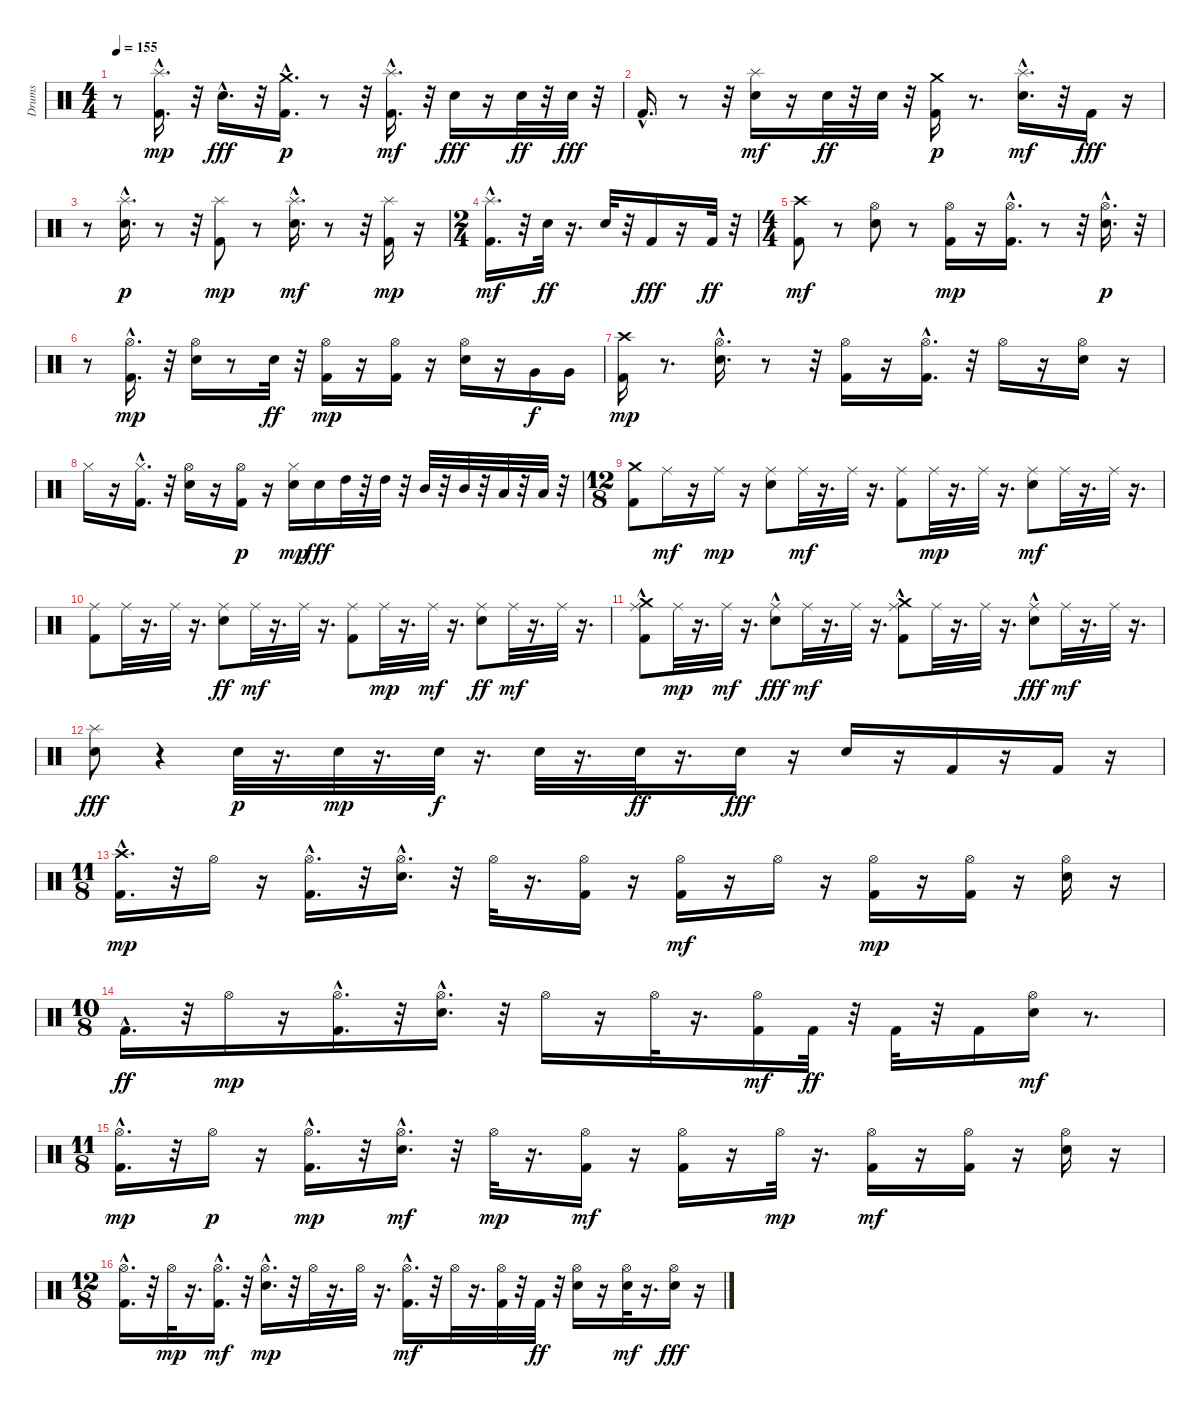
\track ("Drums" "Drums") {instrument percussion}
\staff {score}
\articulation defaults
\ts (4 4)
\tempo 155
\clef neutral
\ks c
r.8{dy mp} ("Kick (hit) 2"{hac} "Splash (hit)").16{d} r.32 "Electric Snare (hit)"{hac}.16{d dy fff} r.32 ("Kick (hit) 2"{hac} "Crash medium (hit)").16{d dy p} r.8 r.32 ("Kick (hit) 2"{hac} "Splash (hit)").16{d dy mf} r.32 "Electric Snare (hit)".16{dy fff} r.16 "Electric Snare (hit)".32{dy ff} r.32 "Electric Snare (hit)".32{dy fff} r.32 |
"Kick (hit) 2"{hac}.16{d} r.8 r.32 ("Electric Snare (hit)" "Splash (hit)").16{dy mf} r.16 "Electric Snare (hit)".32{dy ff} r.32 "Electric Snare (hit)".32 r.32 ("Kick (hit) 2" "Crash medium (hit)").16{dy p} r.8{d} ("Electric Snare (hit)"{hac} "Splash (hit)").16{d dy mf} r.32 "Kick (hit) 2".16{dy fff} r.16 |
r.8 ("Electric Snare (hit)"{hac} "Splash (hit)").16{d dy p} r.8 r.32 ("Kick (hit) 2" "Splash (hit)").8{dy mp} r.8 ("Electric Snare (hit)"{hac} "Splash (hit)"{hac}).16{d dy mf} r.8 r.32 ("Kick (hit) 2" "Splash (hit)").16{dy mp} r.16 |
\ts (2 4)
("Kick (hit) 2"{hac} "Splash (hit)").16{d dy mf} r.32 "Electric Snare (hit)".32{dy ff} r.16{d} "Electric Snare (hit)".32 r.32 "Kick (hit) 2".16{dy fff} r.16 "Kick (hit) 2".32{dy ff} r.32 |
\ts (4 4)
("Kick (hit) 2" "Crash high (hit)").8{dy mf} r.8 ("Electric Snare (hit)" "Hi-Hat (open)").8 r.8 ("Kick (hit) 2" "Hi-Hat (open)").16{dy mp} r.16 ("Kick (hit) 2"{hac} "Hi-Hat (open)").16{d} r.8 r.32 ("Electric Snare (hit)"{hac} "Hi-Hat (open)").16{d dy p} r.32 |
r.8 ("Kick (hit) 2"{hac} "Hi-Hat (open)").16{d dy mp} r.32 ("Electric Snare (hit)" "Hi-Hat (open)").16 r.8 "Electric Snare (hit)".32{dy ff} r.32 ("Kick (hit) 2" "Hi-Hat (open)").16{dy mp} r.16 ("Kick (hit) 2" "Hi-Hat (open)").16 r.16 ("Electric Snare (hit)" "Hi-Hat (open)").16 r.16 "Very Low Tom (hit)".16{dy f} "Very Low Tom (hit)".16 |
("Kick (hit) 2" "Crash high (hit)").16{dy mp} r.8{d} ("Electric Snare (hit)"{hac} "Hi-Hat (open)").16{d} r.8 r.32 ("Kick (hit) 2" "Hi-Hat (open)").16 r.16 ("Kick (hit) 2"{hac} "Hi-Hat (open)").16{d} r.32 "Hi-Hat (open)".16 r.16 ("Electric Snare (hit)" "Hi-Hat (open)").16 r.16 |
"Hi-Hat (closed)".16 r.16 ("Kick (hit) 2"{hac} "Hi-Hat (closed)").16{d} r.32 ("Electric Snare (hit)" "Hi-Hat (open)").16 r.16 ("Kick (hit) 2" "Hi-Hat (open)").16{dy p} r.16 ("Electric Snare (hit)" "Hi-Hat (closed)").16{dy mp} "Electric Snare (hit)".16{dy fff} "High Tom (hit)".32 r.32 "High Tom (hit)".32 r.32 "Mid Tom (hit)".32 r.32 "Mid Tom (hit)".32 r.32 "Low Tom (hit)".32 r.32 "Low Tom (hit)".32 r.32 |
\ts (12 8)
("Kick (hit) 2" "Crash medium (hit)").8 "Ride (middle)".16{dy mf} r.16 "Ride (middle)".16{dy mp} r.16 ("Electric Snare (hit)" "Ride (middle)").8 "Ride (middle)".32{dy mf} r.16{d} "Ride (middle)".32 r.16{d} ("Kick (hit) 2" "Ride (middle)").8 "Ride (middle)".32{dy mp} r.16{d} "Ride (middle)".32 r.16{d} ("Electric Snare (hit)" "Ride (middle)").8{dy mf} "Ride (middle)".32 r.16{d} "Ride (middle)".32 r.16{d} |
("Kick (hit) 2" "Ride (middle)").8 "Ride (middle)".32 r.16{d} "Ride (middle)".32 r.16{d} ("Electric Snare (hit)" "Ride (middle)").8{dy ff} "Ride (middle)".32{dy mf} r.16{d} "Ride (middle)".32 r.16{d} ("Kick (hit) 2" "Ride (middle)").8 "Ride (middle)".32{dy mp} r.16{d} "Ride (middle)".32{dy mf} r.16{d} ("Electric Snare (hit)" "Ride (middle)").8{dy ff} "Ride (middle)".32{dy mf} r.16{d} "Ride (middle)".32 r.16{d} |
("Kick (hit) 2" "Ride (middle)" "Crash medium (hit)"{hac}).8 "Ride (middle)".32{dy mp} r.16{d} "Ride (middle)".32{dy mf} r.16{d} ("Electric Snare (hit)"{hac} "Ride (middle)").8{dy fff} "Ride (middle)".32{dy mf} r.16{d} "Ride (middle)".32 r.16{d} ("Kick (hit) 2" "Ride (middle)" "Crash medium (hit)"{hac}).8 "Ride (middle)".32 r.16{d} "Ride (middle)".32 r.16{d} ("Electric Snare (hit)"{hac} "Ride (middle)").8{dy fff} "Ride (middle)".32{dy mf} r.16{d} "Ride (middle)".32 r.16{d} |
("Electric Snare (hit)" "Splash (hit)").8{dy fff} r.4 "Electric Snare (hit)".32{dy p} r.16{d} "Electric Snare (hit)".32{dy mp} r.16{d} "Electric Snare (hit)".32{dy f} r.16{d} "Electric Snare (hit)".32 r.16{d} "Electric Snare (hit)".32{dy ff} r.16{d} "Electric Snare (hit)".16{dy fff} r.16 "Electric Snare (hit)".16 r.16 "Kick (hit) 2".16 r.16 "Kick (hit) 2".16 r.16 |
\ts (11 8)
("Kick (hit) 2"{hac} "Crash high (hit)").16{d dy mp} r.32 "Hi-Hat (open)".16 r.16 ("Kick (hit) 2"{hac} "Hi-Hat (open)").16{d} r.32 ("Electric Snare (hit)"{hac} "Hi-Hat (open)").16{d} r.32 "Hi-Hat (open)".32 r.16{d} ("Kick (hit) 2" "Hi-Hat (open)").16 r.16 ("Kick (hit) 2" "Hi-Hat (open)").16{dy mf} r.16 "Hi-Hat (open)".16 r.16 ("Kick (hit) 2" "Hi-Hat (open)").16{dy mp} r.16 ("Kick (hit) 2" "Hi-Hat (open)").16 r.16 ("Electric Snare (hit)" "Hi-Hat (open)").16 r.16 |
\ts (10 8)
"Kick (hit) 2"{hac}.16{d dy ff} r.32 "Hi-Hat (open)".16{dy mp} r.16 ("Kick (hit) 2"{hac} "Hi-Hat (open)").16{d} r.32 ("Electric Snare (hit)"{hac} "Hi-Hat (open)").16{d} r.32 "Hi-Hat (open)".16 r.16 "Hi-Hat (open)".32 r.16{d} ("Kick (hit) 2" "Hi-Hat (open)").16{dy mf} "Kick (hit) 2".32{dy ff} r.32 "Kick (hit) 2".32 r.32 "Kick (hit) 2".16 ("Electric Snare (hit)" "Hi-Hat (open)").16{dy mf} r.8{d} |
\ts (11 8)
("Kick (hit) 2"{hac} "Hi-Hat (open)").16{d dy mp} r.32 "Hi-Hat (open)".16{dy p} r.16 ("Kick (hit) 2"{hac} "Hi-Hat (open)").16{d dy mp} r.32 ("Electric Snare (hit)"{hac} "Hi-Hat (open)").16{d dy mf} r.32 "Hi-Hat (open)".32{dy mp} r.16{d} ("Kick (hit) 2" "Hi-Hat (open)").16{dy mf} r.16 ("Kick (hit) 2" "Hi-Hat (open)").16 r.16 "Hi-Hat (open)".32{dy mp} r.16{d} ("Kick (hit) 2" "Hi-Hat (open)").16{dy mf} r.16 ("Kick (hit) 2" "Hi-Hat (open)").16 r.16 ("Electric Snare (hit)" "Hi-Hat (open)").16 r.16 |
\ts (12 8)
("Kick (hit) 2"{hac} "Hi-Hat (open)").16{d} r.32 "Hi-Hat (open)".32{dy mp} r.16{d} ("Kick (hit) 2"{hac} "Hi-Hat (open)").16{d dy mf} r.32 ("Electric Snare (hit)"{hac} "Hi-Hat (open)").16{d dy mp} r.32 "Hi-Hat (open)".32 r.16{d} "Hi-Hat (open)".32 r.16{d} ("Kick (hit) 2"{hac} "Hi-Hat (open)").16{d dy mf} r.32 "Hi-Hat (open)".32 r.16{d} ("Kick (hit) 2" "Hi-Hat (open)").32 r.32 "Kick (hit) 2".32{dy ff} r.32 ("Electric Snare (hit)" "Hi-Hat (open)").16 r.16 ("Electric Snare (hit)" "Hi-Hat (open)").32{dy mf} r.16{d} ("Electric Snare (hit)" "Hi-Hat (open)").16{dy fff} r.16
